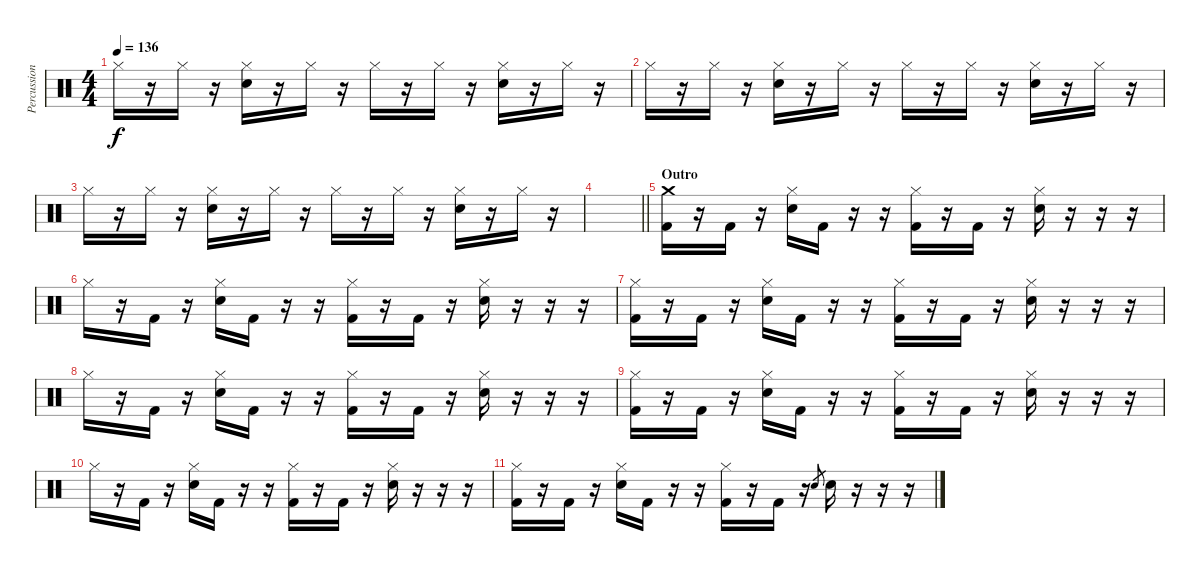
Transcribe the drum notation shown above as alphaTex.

\track ("Percussion" "Percussion") {instrument percussion}
\staff {score}
\articulation defaults
\ts (4 4)
\tempo 136
\clef neutral
\ks c "Hi-Hat (closed)".16{dy f}
r.16 "Hi-Hat (closed)".16 r.16 ("Hi-Hat (closed)" "Electric Snare (hit)").16 r.16 "Hi-Hat (closed)".16 r.16 "Hi-Hat (closed)".16 r.16 "Hi-Hat (closed)".16 r.16 ("Hi-Hat (closed)" "Electric Snare (hit)").16 r.16 "Hi-Hat (closed)".16 r.16 |
"Hi-Hat (closed)".16 r.16 "Hi-Hat (closed)".16 r.16 ("Hi-Hat (closed)" "Electric Snare (hit)").16 r.16 "Hi-Hat (closed)".16 r.16 "Hi-Hat (closed)".16 r.16 "Hi-Hat (closed)".16 r.16 ("Hi-Hat (closed)" "Electric Snare (hit)").16 r.16 "Hi-Hat (closed)".16 r.16 |
"Hi-Hat (closed)".16 r.16 "Hi-Hat (closed)".16 r.16 ("Hi-Hat (closed)" "Electric Snare (hit)").16 r.16 "Hi-Hat (closed)".16 r.16 "Hi-Hat (closed)".16 r.16 "Hi-Hat (closed)".16 r.16 ("Hi-Hat (closed)" "Electric Snare (hit)").16 r.16 "Hi-Hat (closed)".16 r.16 |
\barLineRight lightlight
|
\section ("" "Outro")
("Crash medium (hit)" "Kick (hit) 2").16 r.16 "Kick (hit) 2".16 r.16 ("Hi-Hat (closed)" "Electric Snare (hit)").16 "Kick (hit) 2".16 r.16 r.16 ("Hi-Hat (closed)" "Kick (hit) 2").16 r.16 "Kick (hit) 2".16 r.16 ("Hi-Hat (closed)" "Electric Snare (hit)").16 r.16 r.16 r.16 |
"Hi-Hat (closed)".16 r.16 "Kick (hit) 2".16 r.16 ("Hi-Hat (closed)" "Electric Snare (hit)").16 "Kick (hit) 2".16 r.16 r.16 ("Hi-Hat (closed)" "Kick (hit) 2").16 r.16 "Kick (hit) 2".16 r.16 ("Hi-Hat (closed)" "Electric Snare (hit)").16 r.16 r.16 r.16 |
("Hi-Hat (closed)" "Kick (hit) 2").16 r.16 "Kick (hit) 2".16 r.16 ("Hi-Hat (closed)" "Electric Snare (hit)").16 "Kick (hit) 2".16 r.16 r.16 ("Hi-Hat (closed)" "Kick (hit) 2").16 r.16 "Kick (hit) 2".16 r.16 ("Hi-Hat (closed)" "Electric Snare (hit)").16 r.16 r.16 r.16 |
"Hi-Hat (closed)".16 r.16 "Kick (hit) 2".16 r.16 ("Hi-Hat (closed)" "Electric Snare (hit)").16 "Kick (hit) 2".16 r.16 r.16 ("Hi-Hat (closed)" "Kick (hit) 2").16 r.16 "Kick (hit) 2".16 r.16 ("Hi-Hat (closed)" "Electric Snare (hit)").16 r.16 r.16 r.16 |
("Hi-Hat (closed)" "Kick (hit) 2").16 r.16 "Kick (hit) 2".16 r.16 ("Hi-Hat (closed)" "Electric Snare (hit)").16 "Kick (hit) 2".16 r.16 r.16 ("Hi-Hat (closed)" "Kick (hit) 2").16 r.16 "Kick (hit) 2".16 r.16 ("Hi-Hat (closed)" "Electric Snare (hit)").16 r.16 r.16 r.16 |
"Hi-Hat (closed)".16 r.16 "Kick (hit) 2".16 r.16 ("Hi-Hat (closed)" "Electric Snare (hit)").16 "Kick (hit) 2".16 r.16 r.16 ("Hi-Hat (closed)" "Kick (hit) 2").16 r.16 "Kick (hit) 2".16 r.16 ("Hi-Hat (closed)" "Electric Snare (hit)").16 r.16 r.16 r.16 |
("Hi-Hat (closed)" "Kick (hit) 2").16 r.16 "Kick (hit) 2".16 r.16 ("Hi-Hat (closed)" "Electric Snare (hit)").16 "Kick (hit) 2".16 r.16 r.16 ("Hi-Hat (closed)" "Kick (hit) 2").16 r.16 "Kick (hit) 2".16 r.16 "Electric Snare (hit)".8{gr} "Electric Snare (hit)".16 r.16 r.16 r.16
